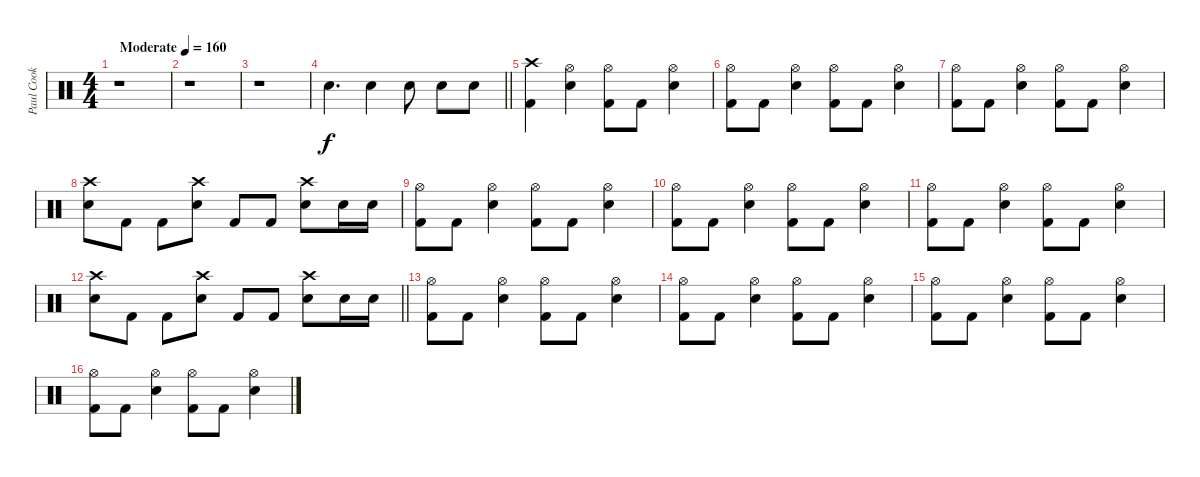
\track ("Paul Cook" "Paul Cook") {instrument percussion}
\staff {score}
\articulation defaults
\ts (4 4)
\tempo (160 "Moderate")
\clef neutral
\ks c
r.1{dy f} |
r.1 |
r.1 |
\barLineRight lightlight "Electric Snare (hit)".4{d} "Electric Snare (hit)".4 "Electric Snare (hit)".8 "Electric Snare (hit)".8 "Electric Snare (hit)".8
|
("Crash high (hit)" "Kick (hit) 2").4 ("Hi-Hat (open)" "Electric Snare (hit)").4 ("Hi-Hat (open)" "Kick (hit) 2").8 "Kick (hit) 2".8 ("Hi-Hat (open)" "Electric Snare (hit)").4 |
("Hi-Hat (open)" "Kick (hit) 2").8 "Kick (hit) 2".8 ("Hi-Hat (open)" "Electric Snare (hit)").4 ("Hi-Hat (open)" "Kick (hit) 2").8 "Kick (hit) 2".8 ("Hi-Hat (open)" "Electric Snare (hit)").4 |
("Hi-Hat (open)" "Kick (hit) 2").8 "Kick (hit) 2".8 ("Hi-Hat (open)" "Electric Snare (hit)").4 ("Hi-Hat (open)" "Kick (hit) 2").8 "Kick (hit) 2".8 ("Hi-Hat (open)" "Electric Snare (hit)").4 |
("Crash high (hit)" "Electric Snare (hit)").8 "Kick (hit) 2".8 "Kick (hit) 2".8 ("Crash high (hit)" "Electric Snare (hit)").8 "Kick (hit) 2".8 "Kick (hit) 2".8 ("Crash high (hit)" "Electric Snare (hit)").8 "Electric Snare (hit)".16 "Electric Snare (hit)".16 |
("Hi-Hat (open)" "Kick (hit) 2").8 "Kick (hit) 2".8 ("Hi-Hat (open)" "Electric Snare (hit)").4 ("Hi-Hat (open)" "Kick (hit) 2").8 "Kick (hit) 2".8 ("Hi-Hat (open)" "Electric Snare (hit)").4 |
("Hi-Hat (open)" "Kick (hit) 2").8 "Kick (hit) 2".8 ("Hi-Hat (open)" "Electric Snare (hit)").4 ("Hi-Hat (open)" "Kick (hit) 2").8 "Kick (hit) 2".8 ("Hi-Hat (open)" "Electric Snare (hit)").4 |
("Hi-Hat (open)" "Kick (hit) 2").8 "Kick (hit) 2".8 ("Hi-Hat (open)" "Electric Snare (hit)").4 ("Hi-Hat (open)" "Kick (hit) 2").8 "Kick (hit) 2".8 ("Hi-Hat (open)" "Electric Snare (hit)").4 |
\barLineRight lightlight
("Crash high (hit)" "Electric Snare (hit)").8 "Kick (hit) 2".8 "Kick (hit) 2".8 ("Crash high (hit)" "Electric Snare (hit)").8 "Kick (hit) 2".8 "Kick (hit) 2".8 ("Crash high (hit)" "Electric Snare (hit)").8 "Electric Snare (hit)".16 "Electric Snare (hit)".16 |
("Hi-Hat (open)" "Kick (hit) 2").8 "Kick (hit) 2".8 ("Hi-Hat (open)" "Electric Snare (hit)").4 ("Hi-Hat (open)" "Kick (hit) 2").8 "Kick (hit) 2".8 ("Hi-Hat (open)" "Electric Snare (hit)").4 |
("Hi-Hat (open)" "Kick (hit) 2").8 "Kick (hit) 2".8 ("Hi-Hat (open)" "Electric Snare (hit)").4 ("Hi-Hat (open)" "Kick (hit) 2").8 "Kick (hit) 2".8 ("Hi-Hat (open)" "Electric Snare (hit)").4 |
("Hi-Hat (open)" "Kick (hit) 2").8 "Kick (hit) 2".8 ("Hi-Hat (open)" "Electric Snare (hit)").4 ("Hi-Hat (open)" "Kick (hit) 2").8 "Kick (hit) 2".8 ("Hi-Hat (open)" "Electric Snare (hit)").4 |
("Hi-Hat (open)" "Kick (hit) 2").8 "Kick (hit) 2".8 ("Hi-Hat (open)" "Electric Snare (hit)").4 ("Hi-Hat (open)" "Kick (hit) 2").8 "Kick (hit) 2".8 ("Hi-Hat (open)" "Electric Snare (hit)").4
